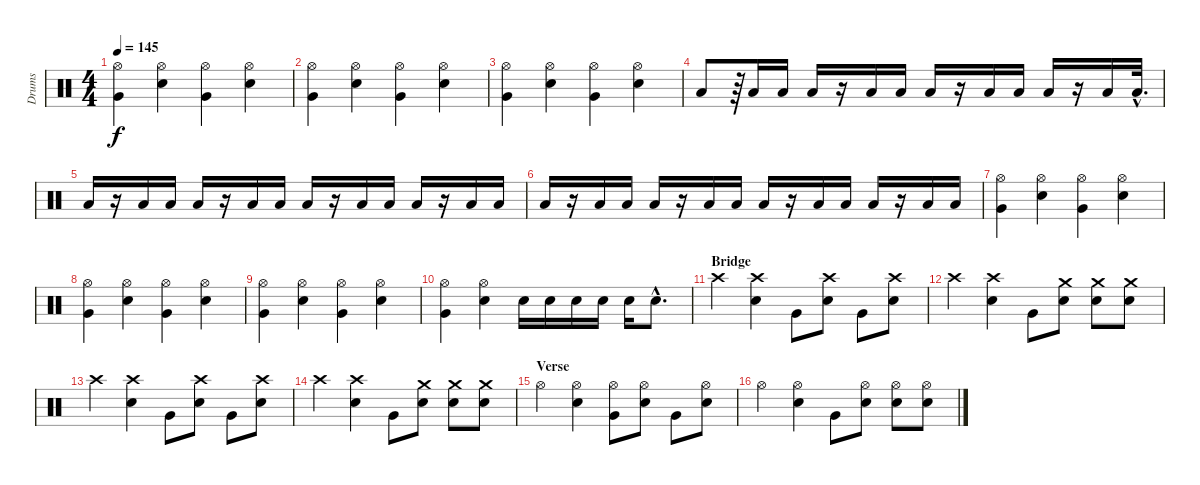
\track ("Drums" "Drums") {instrument percussion}
\staff {score}
\articulation defaults
\ts (4 4)
\tempo 145
\clef neutral
\ks c
("Hi-Hat (open)" "Very Low Tom (hit)").4{dy f} ("Hi-Hat (open)" "Electric Snare (hit)").4 ("Hi-Hat (open)" "Very Low Tom (hit)").4 ("Hi-Hat (open)" "Electric Snare (hit)").4 |
("Hi-Hat (open)" "Very Low Tom (hit)").4 ("Hi-Hat (open)" "Electric Snare (hit)").4 ("Hi-Hat (open)" "Very Low Tom (hit)").4 ("Hi-Hat (open)" "Electric Snare (hit)").4 |
("Hi-Hat (open)" "Very Low Tom (hit)").4 ("Hi-Hat (open)" "Electric Snare (hit)").4 ("Hi-Hat (open)" "Very Low Tom (hit)").4 ("Hi-Hat (open)" "Electric Snare (hit)").4 |
"Low Tom (hit)".8 r.64 "Low Tom (hit)".16 "Low Tom (hit)".16 "Low Tom (hit)".16 r.16 "Low Tom (hit)".16 "Low Tom (hit)".16 "Low Tom (hit)".16 r.16 "Low Tom (hit)".16 "Low Tom (hit)".16 "Low Tom (hit)".16 r.16 "Low Tom (hit)".16 "Low Tom (hit)"{hac}.32{d} |
"Low Tom (hit)".16 r.16 "Low Tom (hit)".16 "Low Tom (hit)".16 "Low Tom (hit)".16 r.16 "Low Tom (hit)".16 "Low Tom (hit)".16 "Low Tom (hit)".16 r.16 "Low Tom (hit)".16 "Low Tom (hit)".16 "Low Tom (hit)".16 r.16 "Low Tom (hit)".16 "Low Tom (hit)".16 |
"Low Tom (hit)".16 r.16 "Low Tom (hit)".16 "Low Tom (hit)".16 "Low Tom (hit)".16 r.16 "Low Tom (hit)".16 "Low Tom (hit)".16 "Low Tom (hit)".16 r.16 "Low Tom (hit)".16 "Low Tom (hit)".16 "Low Tom (hit)".16 r.16 "Low Tom (hit)".16 "Low Tom (hit)".16 |
("Hi-Hat (open)" "Very Low Tom (hit)").4 ("Hi-Hat (open)" "Electric Snare (hit)").4 ("Hi-Hat (open)" "Very Low Tom (hit)").4 ("Hi-Hat (open)" "Electric Snare (hit)").4 |
("Hi-Hat (open)" "Very Low Tom (hit)").4 ("Hi-Hat (open)" "Electric Snare (hit)").4 ("Hi-Hat (open)" "Very Low Tom (hit)").4 ("Hi-Hat (open)" "Electric Snare (hit)").4 |
("Hi-Hat (open)" "Very Low Tom (hit)").4 ("Hi-Hat (open)" "Electric Snare (hit)").4 ("Hi-Hat (open)" "Very Low Tom (hit)").4 ("Hi-Hat (open)" "Electric Snare (hit)").4 |
("Hi-Hat (open)" "Very Low Tom (hit)").4 ("Hi-Hat (open)" "Electric Snare (hit)").4 "Electric Snare (hit)".16 "Electric Snare (hit)".16 "Electric Snare (hit)".16 "Electric Snare (hit)".16 "Electric Snare (hit)".16 "Electric Snare (hit)"{hac}.8{d} |
\section ("" "Bridge")
"Crash high (hit)".4 ("Crash high (hit)" "Electric Snare (hit)").4 "Very Low Tom (hit)".8 ("Crash high (hit)" "Electric Snare (hit)").8 "Very Low Tom (hit)".8 ("Crash high (hit)" "Electric Snare (hit)").8 |
"Crash high (hit)".4 ("Crash high (hit)" "Electric Snare (hit)").4 "Very Low Tom (hit)".8 ("Crash medium (hit)" "Electric Snare (hit)").8 ("Crash medium (hit)" "Electric Snare (hit)").8 ("Crash medium (hit)" "Electric Snare (hit)").8 |
"Crash high (hit)".4 ("Crash high (hit)" "Electric Snare (hit)").4 "Very Low Tom (hit)".8 ("Crash high (hit)" "Electric Snare (hit)").8 "Very Low Tom (hit)".8 ("Crash high (hit)" "Electric Snare (hit)").8 |
"Crash high (hit)".4 ("Crash high (hit)" "Electric Snare (hit)").4 "Very Low Tom (hit)".8 ("Crash medium (hit)" "Electric Snare (hit)").8 ("Crash medium (hit)" "Electric Snare (hit)").8 ("Crash medium (hit)" "Electric Snare (hit)").8 |
\section ("" "Verse")
"Hi-Hat (open)".4 ("Hi-Hat (open)" "Electric Snare (hit)").4 ("Hi-Hat (open)" "Very Low Tom (hit)").8 ("Hi-Hat (open)" "Electric Snare (hit)").8 "Very Low Tom (hit)".8 ("Hi-Hat (open)" "Electric Snare (hit)").8 |
"Hi-Hat (open)".4 ("Hi-Hat (open)" "Electric Snare (hit)").4 "Very Low Tom (hit)".8 ("Hi-Hat (open)" "Electric Snare (hit)").8 ("Hi-Hat (open)" "Electric Snare (hit)").8 ("Hi-Hat (open)" "Electric Snare (hit)").8
